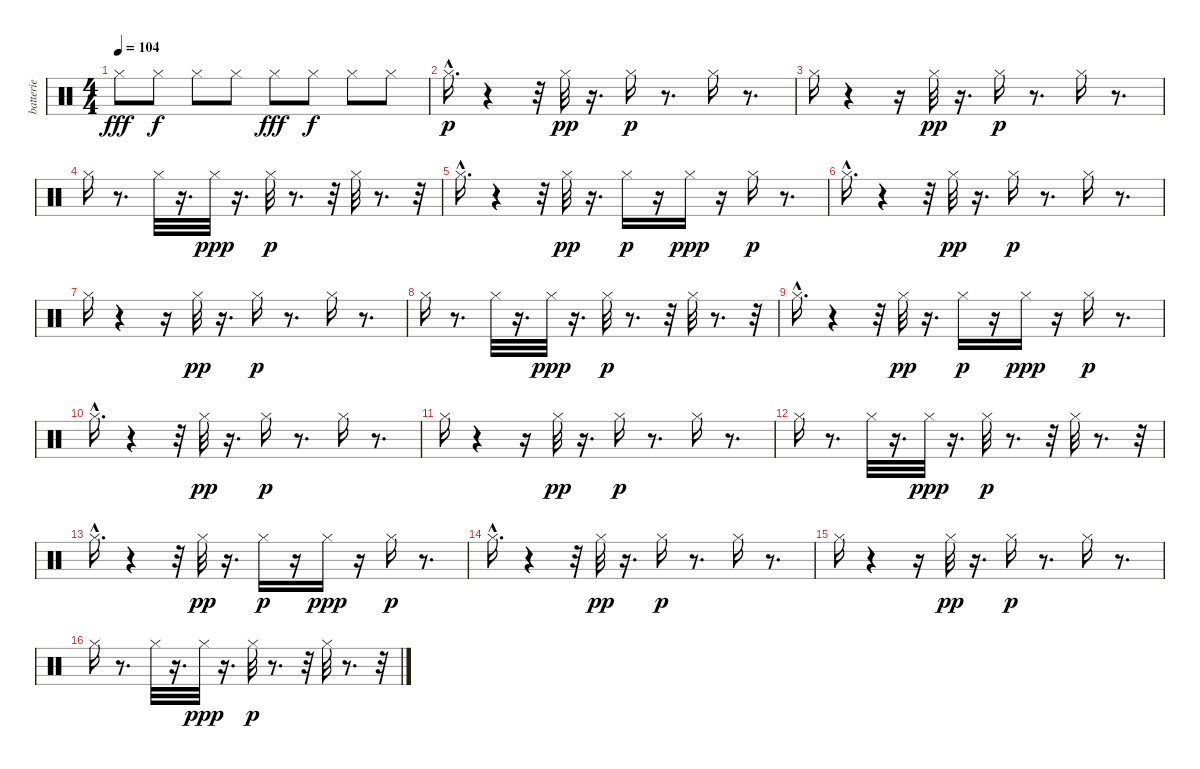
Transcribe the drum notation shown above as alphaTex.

\track ("batterie" "batterie") {instrument percussion}
\staff {score}
\articulation defaults
\ts (4 4)
\tempo 104
\clef neutral
\ks c "Hi-Hat (closed)".8{dy fff} "Hi-Hat (closed)".8{dy f} "Hi-Hat (closed)".8 "Hi-Hat (closed)".8 "Hi-Hat (closed)".8{dy fff} "Hi-Hat (closed)".8{dy f} "Hi-Hat (closed)".8 "Hi-Hat (closed)".8
|
"Hi-Hat (closed)"{hac}.16{d dy p} r.4 r.32 "Hi-Hat (closed)".32{dy pp} r.16{d} "Hi-Hat (closed)".16{dy p} r.8{d} "Hi-Hat (closed)".16 r.8{d} |
"Hi-Hat (closed)".16 r.4 r.16 "Hi-Hat (closed)".32{dy pp} r.16{d} "Hi-Hat (closed)".16{dy p} r.8{d} "Hi-Hat (closed)".16 r.8{d} |
"Hi-Hat (closed)".16 r.8{d} "Hi-Hat (closed)".32 r.16{d} "Hi-Hat (closed)".32{dy ppp} r.16{d} "Hi-Hat (closed)".32{dy p} r.8{d} r.32 "Hi-Hat (closed)".32 r.8{d} r.32 |
"Hi-Hat (closed)"{hac}.16{d} r.4 r.32 "Hi-Hat (closed)".32{dy pp} r.16{d} "Hi-Hat (closed)".16{dy p} r.16 "Hi-Hat (closed)".16{dy ppp} r.16 "Hi-Hat (closed)".16{dy p} r.8{d} |
"Hi-Hat (closed)"{hac}.16{d} r.4 r.32 "Hi-Hat (closed)".32{dy pp} r.16{d} "Hi-Hat (closed)".16{dy p} r.8{d} "Hi-Hat (closed)".16 r.8{d} |
"Hi-Hat (closed)".16 r.4 r.16 "Hi-Hat (closed)".32{dy pp} r.16{d} "Hi-Hat (closed)".16{dy p} r.8{d} "Hi-Hat (closed)".16 r.8{d} |
"Hi-Hat (closed)".16 r.8{d} "Hi-Hat (closed)".32 r.16{d} "Hi-Hat (closed)".32{dy ppp} r.16{d} "Hi-Hat (closed)".32{dy p} r.8{d} r.32 "Hi-Hat (closed)".32 r.8{d} r.32 |
"Hi-Hat (closed)"{hac}.16{d} r.4 r.32 "Hi-Hat (closed)".32{dy pp} r.16{d} "Hi-Hat (closed)".16{dy p} r.16 "Hi-Hat (closed)".16{dy ppp} r.16 "Hi-Hat (closed)".16{dy p} r.8{d} |
"Hi-Hat (closed)"{hac}.16{d} r.4 r.32 "Hi-Hat (closed)".32{dy pp} r.16{d} "Hi-Hat (closed)".16{dy p} r.8{d} "Hi-Hat (closed)".16 r.8{d} |
"Hi-Hat (closed)".16 r.4 r.16 "Hi-Hat (closed)".32{dy pp} r.16{d} "Hi-Hat (closed)".16{dy p} r.8{d} "Hi-Hat (closed)".16 r.8{d} |
"Hi-Hat (closed)".16 r.8{d} "Hi-Hat (closed)".32 r.16{d} "Hi-Hat (closed)".32{dy ppp} r.16{d} "Hi-Hat (closed)".32{dy p} r.8{d} r.32 "Hi-Hat (closed)".32 r.8{d} r.32 |
"Hi-Hat (closed)"{hac}.16{d} r.4 r.32 "Hi-Hat (closed)".32{dy pp} r.16{d} "Hi-Hat (closed)".16{dy p} r.16 "Hi-Hat (closed)".16{dy ppp} r.16 "Hi-Hat (closed)".16{dy p} r.8{d} |
"Hi-Hat (closed)"{hac}.16{d} r.4 r.32 "Hi-Hat (closed)".32{dy pp} r.16{d} "Hi-Hat (closed)".16{dy p} r.8{d} "Hi-Hat (closed)".16 r.8{d} |
"Hi-Hat (closed)".16 r.4 r.16 "Hi-Hat (closed)".32{dy pp} r.16{d} "Hi-Hat (closed)".16{dy p} r.8{d} "Hi-Hat (closed)".16 r.8{d} |
"Hi-Hat (closed)".16 r.8{d} "Hi-Hat (closed)".32 r.16{d} "Hi-Hat (closed)".32{dy ppp} r.16{d} "Hi-Hat (closed)".32{dy p} r.8{d} r.32 "Hi-Hat (closed)".32 r.8{d} r.32
